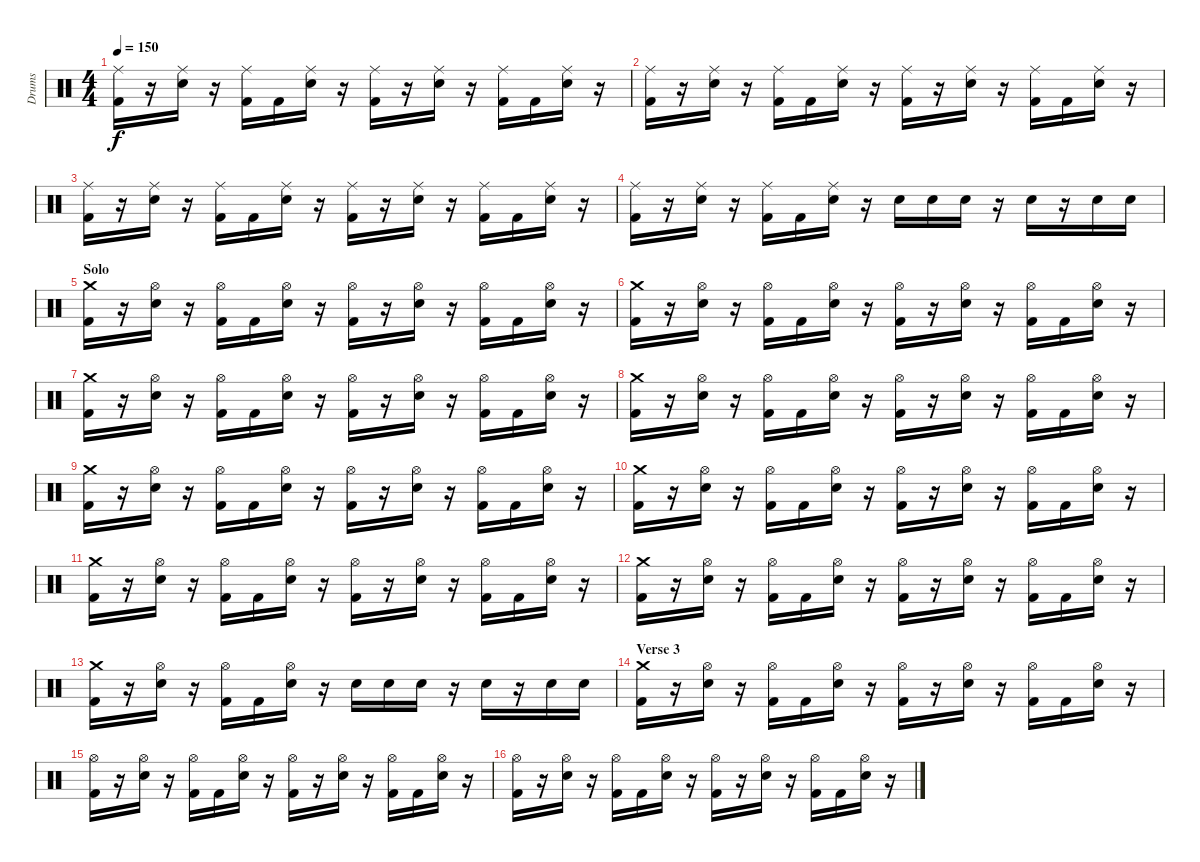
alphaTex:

\track ("Drums" "Drums") {instrument percussion}
\staff {score}
\articulation defaults
\ts (4 4)
\tempo 150
\clef neutral
\ks c
("Ride (middle)" "Kick (hit) 2").16{dy f} r.16 ("Ride (middle)" "Electric Snare (hit)").16 r.16 ("Ride (middle)" "Kick (hit) 2").16 "Kick (hit) 2".16 ("Ride (middle)" "Electric Snare (hit)").16 r.16 ("Ride (middle)" "Kick (hit) 2").16 r.16 ("Ride (middle)" "Electric Snare (hit)").16 r.16 ("Ride (middle)" "Kick (hit) 2").16 "Kick (hit) 2".16 ("Ride (middle)" "Electric Snare (hit)").16 r.16 |
("Ride (middle)" "Kick (hit) 2").16 r.16 ("Ride (middle)" "Electric Snare (hit)").16 r.16 ("Ride (middle)" "Kick (hit) 2").16 "Kick (hit) 2".16 ("Ride (middle)" "Electric Snare (hit)").16 r.16 ("Ride (middle)" "Kick (hit) 2").16 r.16 ("Ride (middle)" "Electric Snare (hit)").16 r.16 ("Ride (middle)" "Kick (hit) 2").16 "Kick (hit) 2".16 ("Ride (middle)" "Electric Snare (hit)").16 r.16 |
("Ride (middle)" "Kick (hit) 2").16 r.16 ("Ride (middle)" "Electric Snare (hit)").16 r.16 ("Ride (middle)" "Kick (hit) 2").16 "Kick (hit) 2".16 ("Ride (middle)" "Electric Snare (hit)").16 r.16 ("Ride (middle)" "Kick (hit) 2").16 r.16 ("Ride (middle)" "Electric Snare (hit)").16 r.16 ("Ride (middle)" "Kick (hit) 2").16 "Kick (hit) 2".16 ("Ride (middle)" "Electric Snare (hit)").16 r.16 |
("Ride (middle)" "Kick (hit) 2").16 r.16 ("Ride (middle)" "Electric Snare (hit)").16 r.16 ("Ride (middle)" "Kick (hit) 2").16 "Kick (hit) 2".16 ("Ride (middle)" "Electric Snare (hit)").16 r.16 "Electric Snare (hit)".16 "Electric Snare (hit)".16 "Electric Snare (hit)".16 r.16 "Electric Snare (hit)".16 r.16 "Electric Snare (hit)".16 "Electric Snare (hit)".16 |
\section ("" "Solo")
("Crash medium (hit)" "Kick (hit) 2").16 r.16 ("Hi-Hat (open)" "Electric Snare (hit)").16 r.16 ("Hi-Hat (open)" "Kick (hit) 2").16 "Kick (hit) 2".16 ("Hi-Hat (open)" "Electric Snare (hit)").16 r.16 ("Hi-Hat (open)" "Kick (hit) 2").16 r.16 ("Hi-Hat (open)" "Electric Snare (hit)").16 r.16 ("Hi-Hat (open)" "Kick (hit) 2").16 "Kick (hit) 2".16 ("Hi-Hat (open)" "Electric Snare (hit)").16 r.16 |
("Crash medium (hit)" "Kick (hit) 2").16 r.16 ("Hi-Hat (open)" "Electric Snare (hit)").16 r.16 ("Hi-Hat (open)" "Kick (hit) 2").16 "Kick (hit) 2".16 ("Hi-Hat (open)" "Electric Snare (hit)").16 r.16 ("Hi-Hat (open)" "Kick (hit) 2").16 r.16 ("Hi-Hat (open)" "Electric Snare (hit)").16 r.16 ("Hi-Hat (open)" "Kick (hit) 2").16 "Kick (hit) 2".16 ("Hi-Hat (open)" "Electric Snare (hit)").16 r.16 |
("Crash medium (hit)" "Kick (hit) 2").16 r.16 ("Hi-Hat (open)" "Electric Snare (hit)").16 r.16 ("Hi-Hat (open)" "Kick (hit) 2").16 "Kick (hit) 2".16 ("Hi-Hat (open)" "Electric Snare (hit)").16 r.16 ("Hi-Hat (open)" "Kick (hit) 2").16 r.16 ("Hi-Hat (open)" "Electric Snare (hit)").16 r.16 ("Hi-Hat (open)" "Kick (hit) 2").16 "Kick (hit) 2".16 ("Hi-Hat (open)" "Electric Snare (hit)").16 r.16 |
("Crash medium (hit)" "Kick (hit) 2").16 r.16 ("Hi-Hat (open)" "Electric Snare (hit)").16 r.16 ("Hi-Hat (open)" "Kick (hit) 2").16 "Kick (hit) 2".16 ("Hi-Hat (open)" "Electric Snare (hit)").16 r.16 ("Hi-Hat (open)" "Kick (hit) 2").16 r.16 ("Hi-Hat (open)" "Electric Snare (hit)").16 r.16 ("Hi-Hat (open)" "Kick (hit) 2").16 "Kick (hit) 2".16 ("Hi-Hat (open)" "Electric Snare (hit)").16 r.16 |
("Crash medium (hit)" "Kick (hit) 2").16 r.16 ("Hi-Hat (open)" "Electric Snare (hit)").16 r.16 ("Hi-Hat (open)" "Kick (hit) 2").16 "Kick (hit) 2".16 ("Hi-Hat (open)" "Electric Snare (hit)").16 r.16 ("Hi-Hat (open)" "Kick (hit) 2").16 r.16 ("Hi-Hat (open)" "Electric Snare (hit)").16 r.16 ("Hi-Hat (open)" "Kick (hit) 2").16 "Kick (hit) 2".16 ("Hi-Hat (open)" "Electric Snare (hit)").16 r.16 |
("Crash medium (hit)" "Kick (hit) 2").16 r.16 ("Hi-Hat (open)" "Electric Snare (hit)").16 r.16 ("Hi-Hat (open)" "Kick (hit) 2").16 "Kick (hit) 2".16 ("Hi-Hat (open)" "Electric Snare (hit)").16 r.16 ("Hi-Hat (open)" "Kick (hit) 2").16 r.16 ("Hi-Hat (open)" "Electric Snare (hit)").16 r.16 ("Hi-Hat (open)" "Kick (hit) 2").16 "Kick (hit) 2".16 ("Hi-Hat (open)" "Electric Snare (hit)").16 r.16 |
("Crash medium (hit)" "Kick (hit) 2").16 r.16 ("Hi-Hat (open)" "Electric Snare (hit)").16 r.16 ("Hi-Hat (open)" "Kick (hit) 2").16 "Kick (hit) 2".16 ("Hi-Hat (open)" "Electric Snare (hit)").16 r.16 ("Hi-Hat (open)" "Kick (hit) 2").16 r.16 ("Hi-Hat (open)" "Electric Snare (hit)").16 r.16 ("Hi-Hat (open)" "Kick (hit) 2").16 "Kick (hit) 2".16 ("Hi-Hat (open)" "Electric Snare (hit)").16 r.16 |
("Crash medium (hit)" "Kick (hit) 2").16 r.16 ("Hi-Hat (open)" "Electric Snare (hit)").16 r.16 ("Hi-Hat (open)" "Kick (hit) 2").16 "Kick (hit) 2".16 ("Hi-Hat (open)" "Electric Snare (hit)").16 r.16 ("Hi-Hat (open)" "Kick (hit) 2").16 r.16 ("Hi-Hat (open)" "Electric Snare (hit)").16 r.16 ("Hi-Hat (open)" "Kick (hit) 2").16 "Kick (hit) 2".16 ("Hi-Hat (open)" "Electric Snare (hit)").16 r.16 |
("Crash medium (hit)" "Kick (hit) 2").16 r.16 ("Hi-Hat (open)" "Electric Snare (hit)").16 r.16 ("Hi-Hat (open)" "Kick (hit) 2").16 "Kick (hit) 2".16 ("Hi-Hat (open)" "Electric Snare (hit)").16 r.16 "Electric Snare (hit)".16 "Electric Snare (hit)".16 "Electric Snare (hit)".16 r.16 "Electric Snare (hit)".16 r.16 "Electric Snare (hit)".16 "Electric Snare (hit)".16 |
\section ("" "Verse 3")
("Crash medium (hit)" "Kick (hit) 2").16 r.16 ("Hi-Hat (open)" "Electric Snare (hit)").16 r.16 ("Hi-Hat (open)" "Kick (hit) 2").16 "Kick (hit) 2".16 ("Hi-Hat (open)" "Electric Snare (hit)").16 r.16 ("Hi-Hat (open)" "Kick (hit) 2").16 r.16 ("Hi-Hat (open)" "Electric Snare (hit)").16 r.16 ("Hi-Hat (open)" "Kick (hit) 2").16 "Kick (hit) 2".16 ("Hi-Hat (open)" "Electric Snare (hit)").16 r.16 |
("Hi-Hat (open)" "Kick (hit) 2").16 r.16 ("Hi-Hat (open)" "Electric Snare (hit)").16 r.16 ("Hi-Hat (open)" "Kick (hit) 2").16 "Kick (hit) 2".16 ("Hi-Hat (open)" "Electric Snare (hit)").16 r.16 ("Hi-Hat (open)" "Kick (hit) 2").16 r.16 ("Hi-Hat (open)" "Electric Snare (hit)").16 r.16 ("Hi-Hat (open)" "Kick (hit) 2").16 "Kick (hit) 2".16 ("Hi-Hat (open)" "Electric Snare (hit)").16 r.16 |
("Hi-Hat (open)" "Kick (hit) 2").16 r.16 ("Hi-Hat (open)" "Electric Snare (hit)").16 r.16 ("Hi-Hat (open)" "Kick (hit) 2").16 "Kick (hit) 2".16 ("Hi-Hat (open)" "Electric Snare (hit)").16 r.16 ("Hi-Hat (open)" "Kick (hit) 2").16 r.16 ("Hi-Hat (open)" "Electric Snare (hit)").16 r.16 ("Hi-Hat (open)" "Kick (hit) 2").16 "Kick (hit) 2".16 ("Hi-Hat (open)" "Electric Snare (hit)").16 r.16
